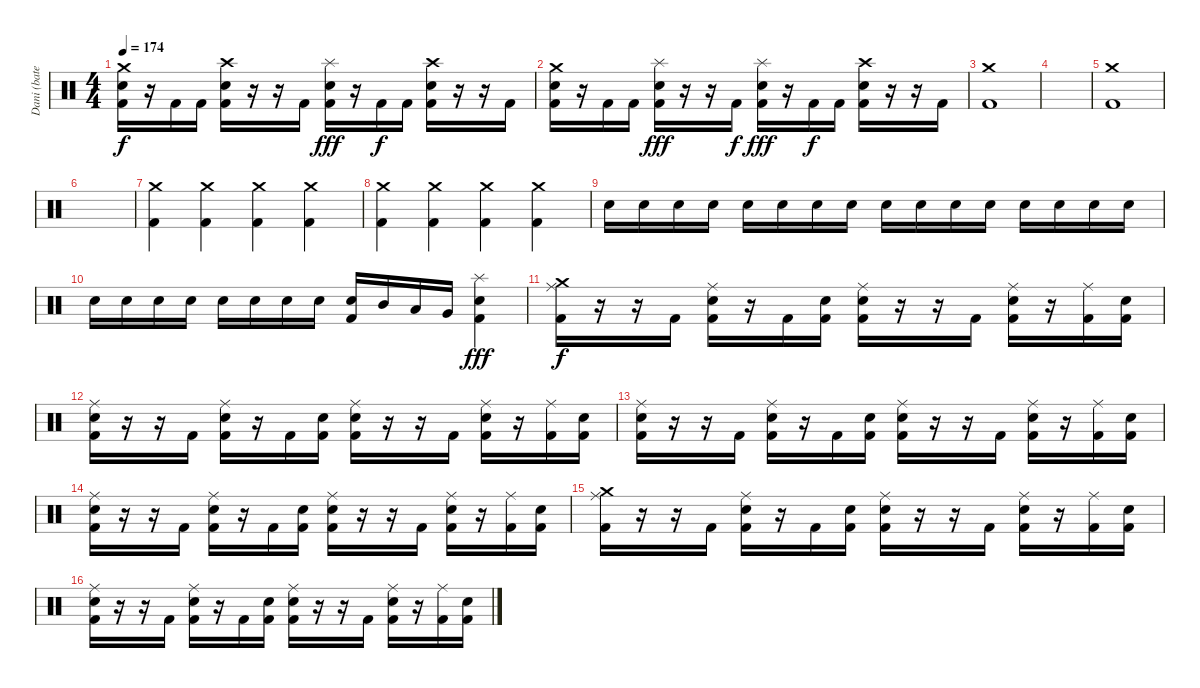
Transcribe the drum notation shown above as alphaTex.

\track ("Dani (batería)" "Dani (bate") {instrument percussion}
\staff {score}
\articulation defaults
\ts (4 4)
\tempo 174
\clef neutral
\ks c
("Crash medium (hit)" "Electric Snare (hit)" "Kick (hit) 2").16{dy f} r.16 "Kick (hit) 2".16 "Kick (hit) 2".16 ("Crash high (hit)" "Electric Snare (hit)" "Kick (hit) 2").16 r.16 r.16 "Kick (hit) 2".16 ("Splash (hit)" "Electric Snare (hit)" "Kick (hit) 2").16{dy fff} r.16 "Kick (hit) 2".16{dy f} "Kick (hit) 2".16 ("Crash high (hit)" "Electric Snare (hit)" "Kick (hit) 2").16 r.16 r.16 "Kick (hit) 2".16 |
("Crash medium (hit)" "Electric Snare (hit)" "Kick (hit) 2").16 r.16 "Kick (hit) 2".16 "Kick (hit) 2".16 ("Splash (hit)" "Electric Snare (hit)" "Kick (hit) 2").16{dy fff} r.16 r.16 "Kick (hit) 2".16{dy f} ("Splash (hit)" "Electric Snare (hit)" "Kick (hit) 2").16{dy fff} r.16 "Kick (hit) 2".16{dy f} "Kick (hit) 2".16 ("Crash high (hit)" "Electric Snare (hit)" "Kick (hit) 2").16 r.16 r.16 "Kick (hit) 2".16 |
("Crash medium (hit)" "Kick (hit) 2").1 |
|
("Crash medium (hit)" "Kick (hit) 2").1 |
|
("Crash medium (hit)" "Kick (hit) 2").4 ("Crash medium (hit)" "Kick (hit) 2").4 ("Crash medium (hit)" "Kick (hit) 2").4 ("Crash medium (hit)" "Kick (hit) 2").4 |
("Crash medium (hit)" "Kick (hit) 2").4 ("Crash medium (hit)" "Kick (hit) 2").4 ("Crash medium (hit)" "Kick (hit) 2").4 ("Crash medium (hit)" "Kick (hit) 2").4 |
"Electric Snare (hit)".16 "Electric Snare (hit)".16 "Electric Snare (hit)".16 "Electric Snare (hit)".16 "Electric Snare (hit)".16 "Electric Snare (hit)".16 "Electric Snare (hit)".16 "Electric Snare (hit)".16 "Electric Snare (hit)".16 "Electric Snare (hit)".16 "Electric Snare (hit)".16 "Electric Snare (hit)".16 "Electric Snare (hit)".16 "Electric Snare (hit)".16 "Electric Snare (hit)".16 "Electric Snare (hit)".16 |
"Electric Snare (hit)".16 "Electric Snare (hit)".16 "Electric Snare (hit)".16 "Electric Snare (hit)".16 "Electric Snare (hit)".16 "Electric Snare (hit)".16 "Electric Snare (hit)".16 "Electric Snare (hit)".16 ("Electric Snare (hit)" "Kick (hit) 2").16 "Mid Tom (hit)".16 "Low Tom (hit)".16 "Very Low Tom (hit)".16 ("Splash (hit)" "Electric Snare (hit)" "Kick (hit) 2").4{dy fff} |
("Crash medium (hit)" "Ride (middle)" "Kick (hit) 2").16{dy f} r.16 r.16 "Kick (hit) 2".16 ("Ride (middle)" "Electric Snare (hit)" "Kick (hit) 2").16 r.16 "Kick (hit) 2".16 ("Electric Snare (hit)" "Kick (hit) 2").16 ("Ride (middle)" "Electric Snare (hit)" "Kick (hit) 2").16 r.16 r.16 "Kick (hit) 2".16 ("Ride (middle)" "Electric Snare (hit)" "Kick (hit) 2").16 r.16 ("Ride (middle)" "Kick (hit) 2").16 ("Electric Snare (hit)" "Kick (hit) 2").16 |
("Ride (middle)" "Electric Snare (hit)" "Kick (hit) 2").16 r.16 r.16 "Kick (hit) 2".16 ("Ride (middle)" "Electric Snare (hit)" "Kick (hit) 2").16 r.16 "Kick (hit) 2".16 ("Electric Snare (hit)" "Kick (hit) 2").16 ("Ride (middle)" "Electric Snare (hit)" "Kick (hit) 2").16 r.16 r.16 "Kick (hit) 2".16 ("Ride (middle)" "Electric Snare (hit)" "Kick (hit) 2").16 r.16 ("Ride (middle)" "Kick (hit) 2").16 ("Electric Snare (hit)" "Kick (hit) 2").16 |
("Ride (middle)" "Electric Snare (hit)" "Kick (hit) 2").16 r.16 r.16 "Kick (hit) 2".16 ("Ride (middle)" "Electric Snare (hit)" "Kick (hit) 2").16 r.16 "Kick (hit) 2".16 ("Electric Snare (hit)" "Kick (hit) 2").16 ("Ride (middle)" "Electric Snare (hit)" "Kick (hit) 2").16 r.16 r.16 "Kick (hit) 2".16 ("Ride (middle)" "Electric Snare (hit)" "Kick (hit) 2").16 r.16 ("Ride (middle)" "Kick (hit) 2").16 ("Electric Snare (hit)" "Kick (hit) 2").16 |
("Ride (middle)" "Electric Snare (hit)" "Kick (hit) 2").16 r.16 r.16 "Kick (hit) 2".16 ("Ride (middle)" "Electric Snare (hit)" "Kick (hit) 2").16 r.16 "Kick (hit) 2".16 ("Electric Snare (hit)" "Kick (hit) 2").16 ("Ride (middle)" "Electric Snare (hit)" "Kick (hit) 2").16 r.16 r.16 "Kick (hit) 2".16 ("Ride (middle)" "Electric Snare (hit)" "Kick (hit) 2").16 r.16 ("Ride (middle)" "Kick (hit) 2").16 ("Electric Snare (hit)" "Kick (hit) 2").16 |
("Crash medium (hit)" "Ride (middle)" "Kick (hit) 2").16 r.16 r.16 "Kick (hit) 2".16 ("Ride (middle)" "Electric Snare (hit)" "Kick (hit) 2").16 r.16 "Kick (hit) 2".16 ("Electric Snare (hit)" "Kick (hit) 2").16 ("Ride (middle)" "Electric Snare (hit)" "Kick (hit) 2").16 r.16 r.16 "Kick (hit) 2".16 ("Ride (middle)" "Electric Snare (hit)" "Kick (hit) 2").16 r.16 ("Ride (middle)" "Kick (hit) 2").16 ("Electric Snare (hit)" "Kick (hit) 2").16 |
("Ride (middle)" "Electric Snare (hit)" "Kick (hit) 2").16 r.16 r.16 "Kick (hit) 2".16 ("Ride (middle)" "Electric Snare (hit)" "Kick (hit) 2").16 r.16 "Kick (hit) 2".16 ("Electric Snare (hit)" "Kick (hit) 2").16 ("Ride (middle)" "Electric Snare (hit)" "Kick (hit) 2").16 r.16 r.16 "Kick (hit) 2".16 ("Ride (middle)" "Electric Snare (hit)" "Kick (hit) 2").16 r.16 ("Ride (middle)" "Kick (hit) 2").16 ("Electric Snare (hit)" "Kick (hit) 2").16
